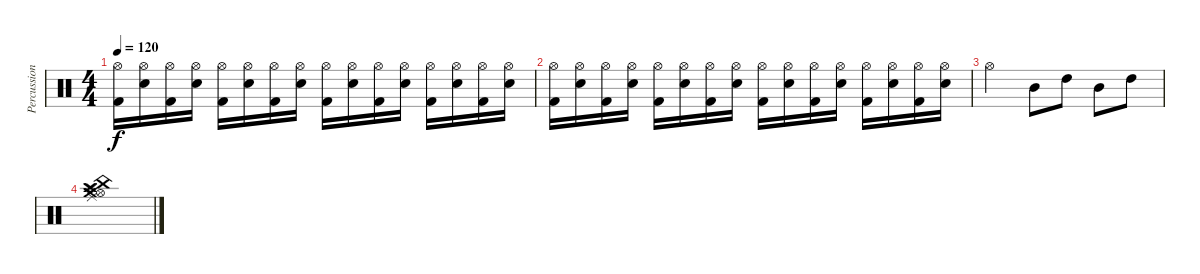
\track ("Percussion" "Percussion") {instrument percussion}
\staff {score}
\articulation defaults
\ts (4 4)
\tempo 120
\clef neutral
\ks c
("Hi-Hat (open)" "Kick (hit) 2").16{dy f} ("Hi-Hat (open)" "Snare (hit) 2").16 ("Hi-Hat (open)" "Kick (hit) 2").16 ("Hi-Hat (open)" "Snare (hit) 2").16 ("Hi-Hat (open)" "Kick (hit) 2").16 ("Hi-Hat (open)" "Snare (hit) 2").16 ("Hi-Hat (open)" "Kick (hit) 2").16 ("Hi-Hat (open)" "Snare (hit) 2").16 ("Hi-Hat (open)" "Kick (hit) 2").16 ("Hi-Hat (open)" "Snare (hit) 2").16 ("Hi-Hat (open)" "Kick (hit) 2").16 ("Hi-Hat (open)" "Snare (hit) 2").16 ("Hi-Hat (open)" "Kick (hit) 2").16 ("Hi-Hat (open)" "Snare (hit) 2").16 ("Hi-Hat (open)" "Kick (hit) 2").16 ("Hi-Hat (open)" "Snare (hit) 2").16 |
("Hi-Hat (open)" "Kick (hit) 2").16 ("Hi-Hat (open)" "Snare (hit) 2").16 ("Hi-Hat (open)" "Kick (hit) 2").16 ("Hi-Hat (open)" "Snare (hit) 2").16 ("Hi-Hat (open)" "Kick (hit) 2").16 ("Hi-Hat (open)" "Snare (hit) 2").16 ("Hi-Hat (open)" "Kick (hit) 2").16 ("Hi-Hat (open)" "Snare (hit) 2").16 ("Hi-Hat (open)" "Kick (hit) 2").16 ("Hi-Hat (open)" "Snare (hit) 2").16 ("Hi-Hat (open)" "Kick (hit) 2").16 ("Hi-Hat (open)" "Snare (hit) 2").16 ("Hi-Hat (open)" "Kick (hit) 2").16 ("Hi-Hat (open)" "Snare (hit) 2").16 ("Hi-Hat (open)" "Kick (hit) 2").16 ("Hi-Hat (open)" "Snare (hit) 2").16 |
"Hi-Hat (open)".2 "Mid Tom (hit)".8 "High Tom (hit)".8 "Mid Tom (hit)".8 "High Tom (hit)".8 |
("Crash high (hit)" "Ride (middle)" "Hi-Hat (open)" "China (hit)" "Splash (hit)" "Crash medium (hit)").1
